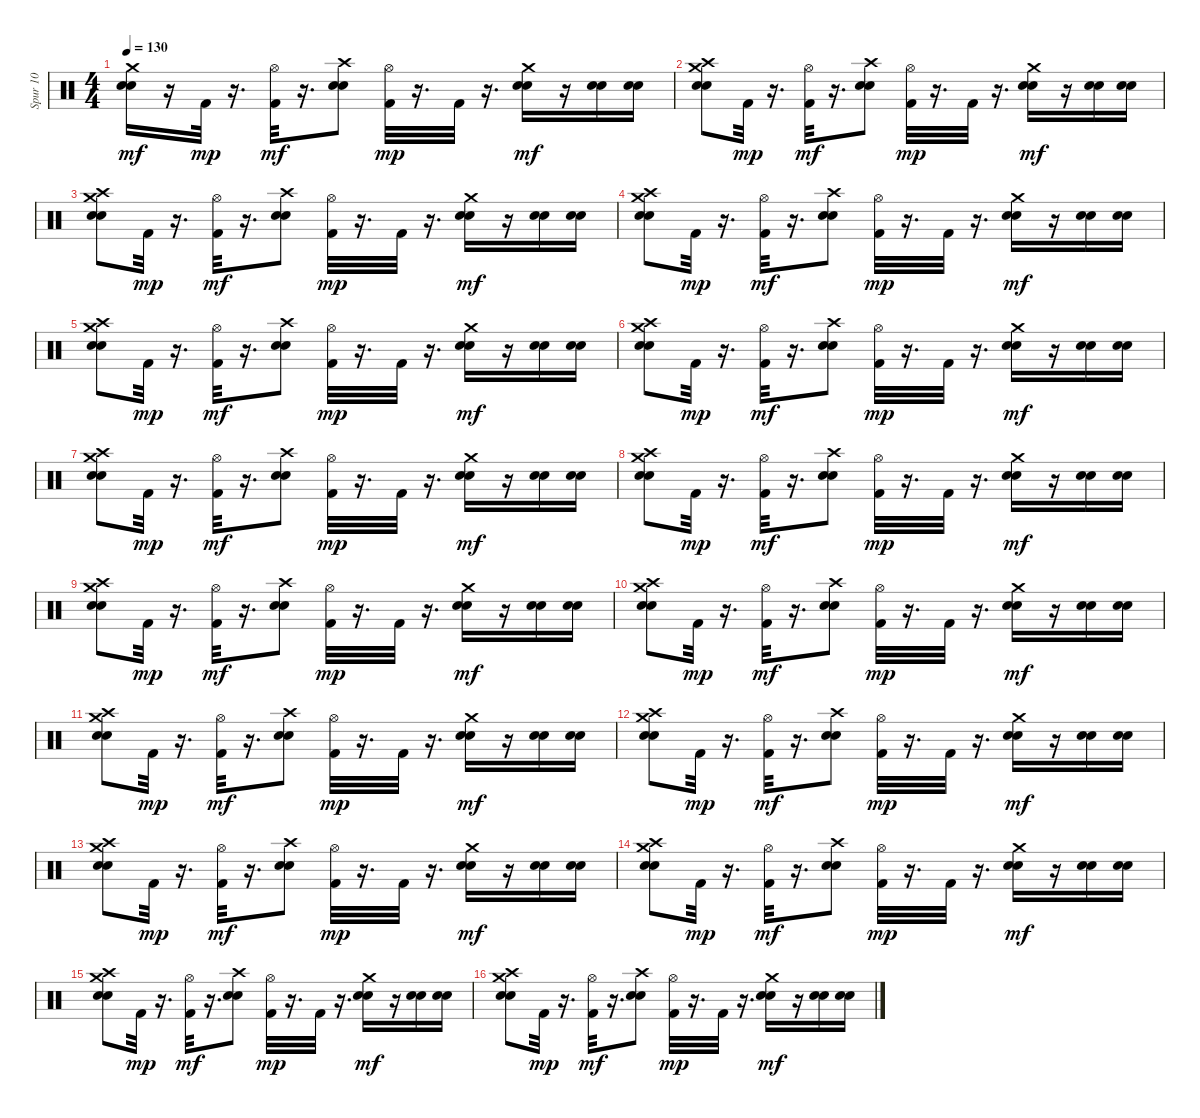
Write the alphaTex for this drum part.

\track ("Spur 10" "Spur 10") {instrument percussion}
\staff {score}
\articulation defaults
\ts (4 4)
\tempo 130
\clef neutral
\ks c
("Electric Snare (hit)" "Snare (hit) 2" "Crash medium (hit)").16{dy mf} r.16 "Kick (hit) 2".32{dy mp} r.16{d} ("Kick (hit) 2" "Hi-Hat (open)").32{dy mf} r.16{d} ("Electric Snare (hit)" "Snare (hit) 2" "Crash high (hit)").8 ("Kick (hit) 2" "Hi-Hat (open)").32{dy mp} r.16{d} "Kick (hit) 2".32 r.16{d} ("Electric Snare (hit)" "Snare (hit) 2" "Crash medium (hit)").16{dy mf} r.16 ("Electric Snare (hit)" "Snare (hit) 2").16 ("Electric Snare (hit)" "Snare (hit) 2").16 |
("Crash high (hit)" "Electric Snare (hit)" "Snare (hit) 2" "Crash medium (hit)").8 "Kick (hit) 2".32{dy mp} r.16{d} ("Kick (hit) 2" "Hi-Hat (open)").32{dy mf} r.16{d} ("Electric Snare (hit)" "Snare (hit) 2" "Crash high (hit)").8 ("Kick (hit) 2" "Hi-Hat (open)").32{dy mp} r.16{d} "Kick (hit) 2".32 r.16{d} ("Electric Snare (hit)" "Snare (hit) 2" "Crash medium (hit)").16{dy mf} r.16 ("Electric Snare (hit)" "Snare (hit) 2").16 ("Electric Snare (hit)" "Snare (hit) 2").16 |
("Crash high (hit)" "Electric Snare (hit)" "Snare (hit) 2" "Crash medium (hit)").8 "Kick (hit) 2".32{dy mp} r.16{d} ("Kick (hit) 2" "Hi-Hat (open)").32{dy mf} r.16{d} ("Electric Snare (hit)" "Snare (hit) 2" "Crash high (hit)").8 ("Kick (hit) 2" "Hi-Hat (open)").32{dy mp} r.16{d} "Kick (hit) 2".32 r.16{d} ("Electric Snare (hit)" "Snare (hit) 2" "Crash medium (hit)").16{dy mf} r.16 ("Electric Snare (hit)" "Snare (hit) 2").16 ("Electric Snare (hit)" "Snare (hit) 2").16 |
("Crash high (hit)" "Electric Snare (hit)" "Snare (hit) 2" "Crash medium (hit)").8 "Kick (hit) 2".32{dy mp} r.16{d} ("Kick (hit) 2" "Hi-Hat (open)").32{dy mf} r.16{d} ("Electric Snare (hit)" "Snare (hit) 2" "Crash high (hit)").8 ("Kick (hit) 2" "Hi-Hat (open)").32{dy mp} r.16{d} "Kick (hit) 2".32 r.16{d} ("Electric Snare (hit)" "Snare (hit) 2" "Crash medium (hit)").16{dy mf} r.16 ("Electric Snare (hit)" "Snare (hit) 2").16 ("Electric Snare (hit)" "Snare (hit) 2").16 |
("Crash high (hit)" "Electric Snare (hit)" "Snare (hit) 2" "Crash medium (hit)").8 "Kick (hit) 2".32{dy mp} r.16{d} ("Kick (hit) 2" "Hi-Hat (open)").32{dy mf} r.16{d} ("Electric Snare (hit)" "Snare (hit) 2" "Crash high (hit)").8 ("Kick (hit) 2" "Hi-Hat (open)").32{dy mp} r.16{d} "Kick (hit) 2".32 r.16{d} ("Electric Snare (hit)" "Snare (hit) 2" "Crash medium (hit)").16{dy mf} r.16 ("Electric Snare (hit)" "Snare (hit) 2").16 ("Electric Snare (hit)" "Snare (hit) 2").16 |
("Crash high (hit)" "Electric Snare (hit)" "Snare (hit) 2" "Crash medium (hit)").8 "Kick (hit) 2".32{dy mp} r.16{d} ("Kick (hit) 2" "Hi-Hat (open)").32{dy mf} r.16{d} ("Electric Snare (hit)" "Snare (hit) 2" "Crash high (hit)").8 ("Kick (hit) 2" "Hi-Hat (open)").32{dy mp} r.16{d} "Kick (hit) 2".32 r.16{d} ("Electric Snare (hit)" "Snare (hit) 2" "Crash medium (hit)").16{dy mf} r.16 ("Electric Snare (hit)" "Snare (hit) 2").16 ("Electric Snare (hit)" "Snare (hit) 2").16 |
("Crash high (hit)" "Electric Snare (hit)" "Snare (hit) 2" "Crash medium (hit)").8 "Kick (hit) 2".32{dy mp} r.16{d} ("Kick (hit) 2" "Hi-Hat (open)").32{dy mf} r.16{d} ("Electric Snare (hit)" "Snare (hit) 2" "Crash high (hit)").8 ("Kick (hit) 2" "Hi-Hat (open)").32{dy mp} r.16{d} "Kick (hit) 2".32 r.16{d} ("Electric Snare (hit)" "Snare (hit) 2" "Crash medium (hit)").16{dy mf} r.16 ("Electric Snare (hit)" "Snare (hit) 2").16 ("Electric Snare (hit)" "Snare (hit) 2").16 |
("Crash high (hit)" "Electric Snare (hit)" "Snare (hit) 2" "Crash medium (hit)").8 "Kick (hit) 2".32{dy mp} r.16{d} ("Kick (hit) 2" "Hi-Hat (open)").32{dy mf} r.16{d} ("Electric Snare (hit)" "Snare (hit) 2" "Crash high (hit)").8 ("Kick (hit) 2" "Hi-Hat (open)").32{dy mp} r.16{d} "Kick (hit) 2".32 r.16{d} ("Electric Snare (hit)" "Snare (hit) 2" "Crash medium (hit)").16{dy mf} r.16 ("Electric Snare (hit)" "Snare (hit) 2").16 ("Electric Snare (hit)" "Snare (hit) 2").16 |
("Crash high (hit)" "Electric Snare (hit)" "Snare (hit) 2" "Crash medium (hit)").8 "Kick (hit) 2".32{dy mp} r.16{d} ("Kick (hit) 2" "Hi-Hat (open)").32{dy mf} r.16{d} ("Electric Snare (hit)" "Snare (hit) 2" "Crash high (hit)").8 ("Kick (hit) 2" "Hi-Hat (open)").32{dy mp} r.16{d} "Kick (hit) 2".32 r.16{d} ("Electric Snare (hit)" "Snare (hit) 2" "Crash medium (hit)").16{dy mf} r.16 ("Electric Snare (hit)" "Snare (hit) 2").16 ("Electric Snare (hit)" "Snare (hit) 2").16 |
("Crash high (hit)" "Electric Snare (hit)" "Snare (hit) 2" "Crash medium (hit)").8 "Kick (hit) 2".32{dy mp} r.16{d} ("Kick (hit) 2" "Hi-Hat (open)").32{dy mf} r.16{d} ("Electric Snare (hit)" "Snare (hit) 2" "Crash high (hit)").8 ("Kick (hit) 2" "Hi-Hat (open)").32{dy mp} r.16{d} "Kick (hit) 2".32 r.16{d} ("Electric Snare (hit)" "Snare (hit) 2" "Crash medium (hit)").16{dy mf} r.16 ("Electric Snare (hit)" "Snare (hit) 2").16 ("Electric Snare (hit)" "Snare (hit) 2").16 |
("Crash high (hit)" "Electric Snare (hit)" "Snare (hit) 2" "Crash medium (hit)").8 "Kick (hit) 2".32{dy mp} r.16{d} ("Kick (hit) 2" "Hi-Hat (open)").32{dy mf} r.16{d} ("Electric Snare (hit)" "Snare (hit) 2" "Crash high (hit)").8 ("Kick (hit) 2" "Hi-Hat (open)").32{dy mp} r.16{d} "Kick (hit) 2".32 r.16{d} ("Electric Snare (hit)" "Snare (hit) 2" "Crash medium (hit)").16{dy mf} r.16 ("Electric Snare (hit)" "Snare (hit) 2").16 ("Electric Snare (hit)" "Snare (hit) 2").16 |
("Crash high (hit)" "Electric Snare (hit)" "Snare (hit) 2" "Crash medium (hit)").8 "Kick (hit) 2".32{dy mp} r.16{d} ("Kick (hit) 2" "Hi-Hat (open)").32{dy mf} r.16{d} ("Electric Snare (hit)" "Snare (hit) 2" "Crash high (hit)").8 ("Kick (hit) 2" "Hi-Hat (open)").32{dy mp} r.16{d} "Kick (hit) 2".32 r.16{d} ("Electric Snare (hit)" "Snare (hit) 2" "Crash medium (hit)").16{dy mf} r.16 ("Electric Snare (hit)" "Snare (hit) 2").16 ("Electric Snare (hit)" "Snare (hit) 2").16 |
("Crash high (hit)" "Electric Snare (hit)" "Snare (hit) 2" "Crash medium (hit)").8 "Kick (hit) 2".32{dy mp} r.16{d} ("Kick (hit) 2" "Hi-Hat (open)").32{dy mf} r.16{d} ("Electric Snare (hit)" "Snare (hit) 2" "Crash high (hit)").8 ("Kick (hit) 2" "Hi-Hat (open)").32{dy mp} r.16{d} "Kick (hit) 2".32 r.16{d} ("Electric Snare (hit)" "Snare (hit) 2" "Crash medium (hit)").16{dy mf} r.16 ("Electric Snare (hit)" "Snare (hit) 2").16 ("Electric Snare (hit)" "Snare (hit) 2").16 |
("Crash high (hit)" "Electric Snare (hit)" "Snare (hit) 2" "Crash medium (hit)").8 "Kick (hit) 2".32{dy mp} r.16{d} ("Kick (hit) 2" "Hi-Hat (open)").32{dy mf} r.16{d} ("Electric Snare (hit)" "Snare (hit) 2" "Crash high (hit)").8 ("Kick (hit) 2" "Hi-Hat (open)").32{dy mp} r.16{d} "Kick (hit) 2".32 r.16{d} ("Electric Snare (hit)" "Snare (hit) 2" "Crash medium (hit)").16{dy mf} r.16 ("Electric Snare (hit)" "Snare (hit) 2").16 ("Electric Snare (hit)" "Snare (hit) 2").16 |
("Crash high (hit)" "Electric Snare (hit)" "Snare (hit) 2" "Crash medium (hit)").8 "Kick (hit) 2".32{dy mp} r.16{d} ("Kick (hit) 2" "Hi-Hat (open)").32{dy mf} r.16{d} ("Electric Snare (hit)" "Snare (hit) 2" "Crash high (hit)").8 ("Kick (hit) 2" "Hi-Hat (open)").32{dy mp} r.16{d} "Kick (hit) 2".32 r.16{d} ("Electric Snare (hit)" "Snare (hit) 2" "Crash medium (hit)").16{dy mf} r.16 ("Electric Snare (hit)" "Snare (hit) 2").16 ("Electric Snare (hit)" "Snare (hit) 2").16 |
("Crash high (hit)" "Electric Snare (hit)" "Snare (hit) 2" "Crash medium (hit)").8 "Kick (hit) 2".32{dy mp} r.16{d} ("Kick (hit) 2" "Hi-Hat (open)").32{dy mf} r.16{d} ("Electric Snare (hit)" "Snare (hit) 2" "Crash high (hit)").8 ("Kick (hit) 2" "Hi-Hat (open)").32{dy mp} r.16{d} "Kick (hit) 2".32 r.16{d} ("Electric Snare (hit)" "Snare (hit) 2" "Crash medium (hit)").16{dy mf} r.16 ("Electric Snare (hit)" "Snare (hit) 2").16 ("Electric Snare (hit)" "Snare (hit) 2").16
